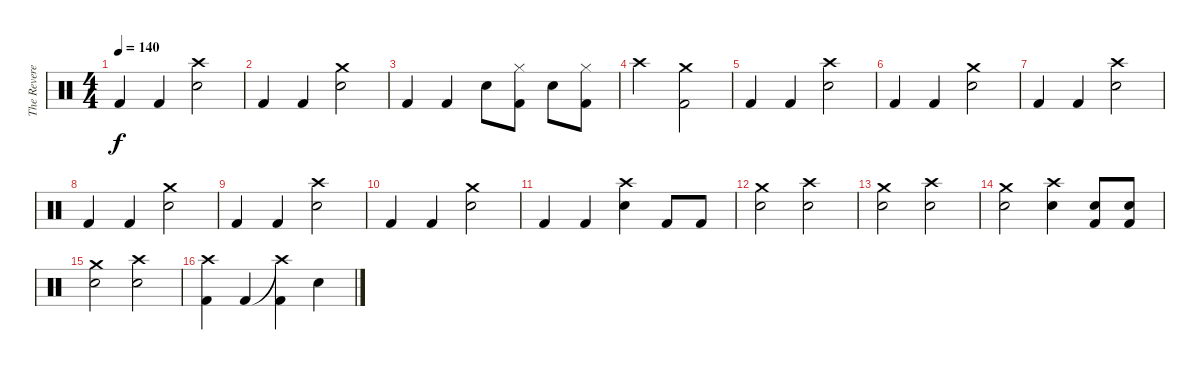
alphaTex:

\track ("The Reverend" "The Revere") {instrument percussion}
\staff {score}
\articulation defaults
\ts (4 4)
\tempo 140
\clef neutral
\ks c "Kick (hit) 2".4{dy f} "Kick (hit) 2".4
("Crash high (hit)" "Snare (hit) 2").2 |
"Kick (hit) 2".4 "Kick (hit) 2".4 ("Crash medium (hit)" "Snare (hit) 2").2 |
"Kick (hit) 2".4 "Kick (hit) 2".4 "Snare (hit) 2".8 ("Hi-Hat (closed)" "Kick (hit) 2").8 "Snare (hit) 2".8 ("Hi-Hat (closed)" "Kick (hit) 2").8 |
"Crash high (hit)".2 ("Crash medium (hit)" "Kick (hit) 2").2 |
"Kick (hit) 2".4 "Kick (hit) 2".4 ("Crash high (hit)" "Snare (hit) 2").2 |
"Kick (hit) 2".4 "Kick (hit) 2".4 ("Crash medium (hit)" "Snare (hit) 2").2 |
"Kick (hit) 2".4 "Kick (hit) 2".4 ("Crash high (hit)" "Snare (hit) 2").2 |
"Kick (hit) 2".4 "Kick (hit) 2".4 ("Crash medium (hit)" "Snare (hit) 2").2 |
"Kick (hit) 2".4 "Kick (hit) 2".4 ("Crash high (hit)" "Snare (hit) 2").2 |
"Kick (hit) 2".4 "Kick (hit) 2".4 ("Crash medium (hit)" "Snare (hit) 2").2 |
"Kick (hit) 2".4 "Kick (hit) 2".4 ("Crash high (hit)" "Snare (hit) 2").4 "Kick (hit) 2".8 "Kick (hit) 2".8 |
("Crash medium (hit)" "Snare (hit) 2").2 ("Crash high (hit)" "Snare (hit) 2").2 |
("Crash medium (hit)" "Snare (hit) 2").2 ("Crash high (hit)" "Snare (hit) 2").2 |
("Crash medium (hit)" "Snare (hit) 2").2 ("Crash high (hit)" "Snare (hit) 2").4 ("Snare (hit) 2" "Kick (hit) 2").8 ("Snare (hit) 2" "Kick (hit) 2").8 |
("Crash medium (hit)" "Snare (hit) 2").2 ("Crash high (hit)" "Snare (hit) 2").2 |
("Crash high (hit)" "Kick (hit) 2").4 "Kick (hit) 2".4 ("Crash high (hit)"{t} "Kick (hit) 2").4 "Snare (hit) 2".4
